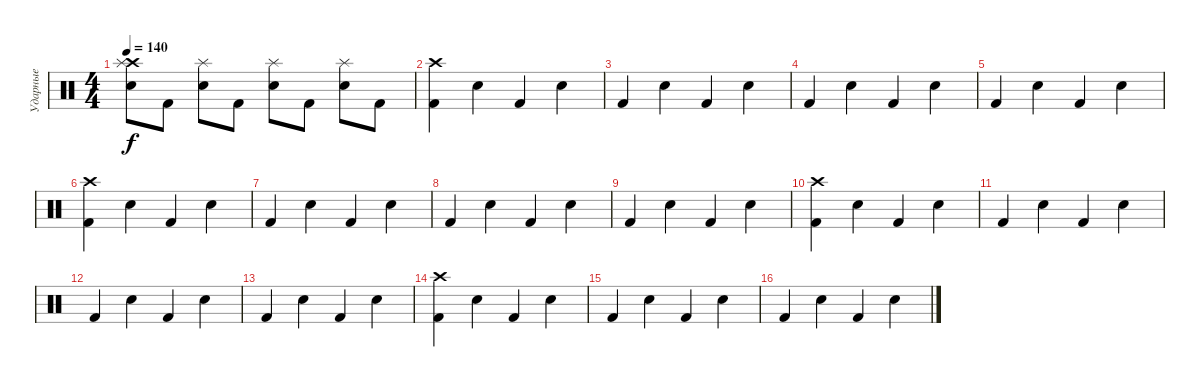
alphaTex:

\track ("Ударные" "Ударные") {instrument percussion}
\staff {score}
\articulation defaults
\ts (4 4)
\tempo 140
\clef neutral
\ks c
("Crash high (hit)" "Splash (hit)" "Electric Snare (hit)").8{dy f} "Kick (hit) 2".8 ("Splash (hit)" "Electric Snare (hit)").8 "Kick (hit) 2".8 ("Splash (hit)" "Electric Snare (hit)").8 "Kick (hit) 2".8 ("Splash (hit)" "Electric Snare (hit)").8 "Kick (hit) 2".8 |
("Crash high (hit)" "Kick (hit) 2").4 "Electric Snare (hit)".4 "Kick (hit) 2".4 "Electric Snare (hit)".4 |
"Kick (hit) 2".4 "Electric Snare (hit)".4 "Kick (hit) 2".4 "Electric Snare (hit)".4 |
"Kick (hit) 2".4 "Electric Snare (hit)".4 "Kick (hit) 2".4 "Electric Snare (hit)".4 |
"Kick (hit) 2".4 "Electric Snare (hit)".4 "Kick (hit) 2".4 "Electric Snare (hit)".4 |
("Crash high (hit)" "Kick (hit) 2").4 "Electric Snare (hit)".4 "Kick (hit) 2".4 "Electric Snare (hit)".4 |
"Kick (hit) 2".4 "Electric Snare (hit)".4 "Kick (hit) 2".4 "Electric Snare (hit)".4 |
"Kick (hit) 2".4 "Electric Snare (hit)".4 "Kick (hit) 2".4 "Electric Snare (hit)".4 |
"Kick (hit) 2".4 "Electric Snare (hit)".4 "Kick (hit) 2".4 "Electric Snare (hit)".4 |
("Crash high (hit)" "Kick (hit) 2").4 "Electric Snare (hit)".4 "Kick (hit) 2".4 "Electric Snare (hit)".4 |
"Kick (hit) 2".4 "Electric Snare (hit)".4 "Kick (hit) 2".4 "Electric Snare (hit)".4 |
"Kick (hit) 2".4 "Electric Snare (hit)".4 "Kick (hit) 2".4 "Electric Snare (hit)".4 |
"Kick (hit) 2".4 "Electric Snare (hit)".4 "Kick (hit) 2".4 "Electric Snare (hit)".4 |
("Crash high (hit)" "Kick (hit) 2").4 "Electric Snare (hit)".4 "Kick (hit) 2".4 "Electric Snare (hit)".4 |
"Kick (hit) 2".4 "Electric Snare (hit)".4 "Kick (hit) 2".4 "Electric Snare (hit)".4 |
"Kick (hit) 2".4 "Electric Snare (hit)".4 "Kick (hit) 2".4 "Electric Snare (hit)".4
